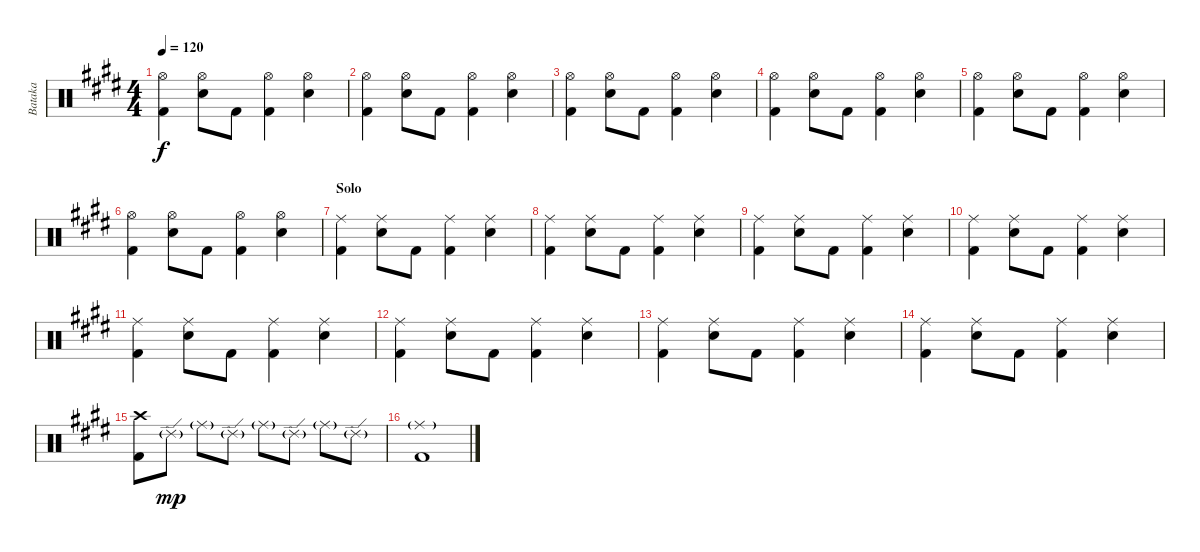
\track ("Bataka" "Bataka") {instrument percussion}
\staff {score}
\articulation defaults
\ts (4 4)
\tempo 120
\clef neutral
\ks e
("Hi-Hat (open)" "Kick (hit) 2").4{dy f} ("Hi-Hat (open)" "Electric Snare (hit)").8 "Kick (hit) 2".8 ("Hi-Hat (open)" "Kick (hit) 2").4 ("Hi-Hat (open)" "Electric Snare (hit)").4 |
("Hi-Hat (open)" "Kick (hit) 2").4 ("Hi-Hat (open)" "Electric Snare (hit)").8 "Kick (hit) 2".8 ("Hi-Hat (open)" "Kick (hit) 2").4 ("Hi-Hat (open)" "Electric Snare (hit)").4 |
("Hi-Hat (open)" "Kick (hit) 2").4 ("Hi-Hat (open)" "Electric Snare (hit)").8 "Kick (hit) 2".8 ("Hi-Hat (open)" "Kick (hit) 2").4 ("Hi-Hat (open)" "Electric Snare (hit)").4 |
("Hi-Hat (open)" "Kick (hit) 2").4 ("Hi-Hat (open)" "Electric Snare (hit)").8 "Kick (hit) 2".8 ("Hi-Hat (open)" "Kick (hit) 2").4 ("Hi-Hat (open)" "Electric Snare (hit)").4 |
("Hi-Hat (open)" "Kick (hit) 2").4 ("Hi-Hat (open)" "Electric Snare (hit)").8 "Kick (hit) 2".8 ("Hi-Hat (open)" "Kick (hit) 2").4 ("Hi-Hat (open)" "Electric Snare (hit)").4 |
("Hi-Hat (open)" "Kick (hit) 2").4 ("Hi-Hat (open)" "Electric Snare (hit)").8 "Kick (hit) 2".8 ("Hi-Hat (open)" "Kick (hit) 2").4 ("Hi-Hat (open)" "Electric Snare (hit)").4 |
\section ("" "Solo")
("Ride (middle)" "Kick (hit) 2").4 ("Ride (middle)" "Electric Snare (hit)").8 "Kick (hit) 2".8 ("Ride (middle)" "Kick (hit) 2").4 ("Ride (middle)" "Electric Snare (hit)").4 |
("Ride (middle)" "Kick (hit) 2").4 ("Ride (middle)" "Electric Snare (hit)").8 "Kick (hit) 2".8 ("Ride (middle)" "Kick (hit) 2").4 ("Ride (middle)" "Electric Snare (hit)").4 |
("Ride (middle)" "Kick (hit) 2").4 ("Ride (middle)" "Electric Snare (hit)").8 "Kick (hit) 2".8 ("Ride (middle)" "Kick (hit) 2").4 ("Ride (middle)" "Electric Snare (hit)").4 |
("Ride (middle)" "Kick (hit) 2").4 ("Ride (middle)" "Electric Snare (hit)").8 "Kick (hit) 2".8 ("Ride (middle)" "Kick (hit) 2").4 ("Ride (middle)" "Electric Snare (hit)").4 |
("Ride (middle)" "Kick (hit) 2").4 ("Ride (middle)" "Electric Snare (hit)").8 "Kick (hit) 2".8 ("Ride (middle)" "Kick (hit) 2").4 ("Ride (middle)" "Electric Snare (hit)").4 |
("Ride (middle)" "Kick (hit) 2").4 ("Ride (middle)" "Electric Snare (hit)").8 "Kick (hit) 2".8 ("Ride (middle)" "Kick (hit) 2").4 ("Ride (middle)" "Electric Snare (hit)").4 |
("Ride (middle)" "Kick (hit) 2").4 ("Ride (middle)" "Electric Snare (hit)").8 "Kick (hit) 2".8 ("Ride (middle)" "Kick (hit) 2").4 ("Ride (middle)" "Electric Snare (hit)").4 |
("Ride (middle)" "Kick (hit) 2").4 ("Ride (middle)" "Electric Snare (hit)").8 "Kick (hit) 2".8 ("Ride (middle)" "Kick (hit) 2").4 ("Ride (middle)" "Electric Snare (hit)").4 |
("Crash high (hit)" "Kick (hit) 2").8 "Ride (edge) 2"{g}.8{dy mp} "Ride (middle)"{g}.8 "Ride (edge) 2"{g}.8 "Ride (middle)"{g}.8 "Ride (edge) 2"{g}.8 "Ride (middle)"{g}.8 "Ride (edge) 2"{g}.8 |
("Ride (middle)"{g} "Kick (hit) 2").1
